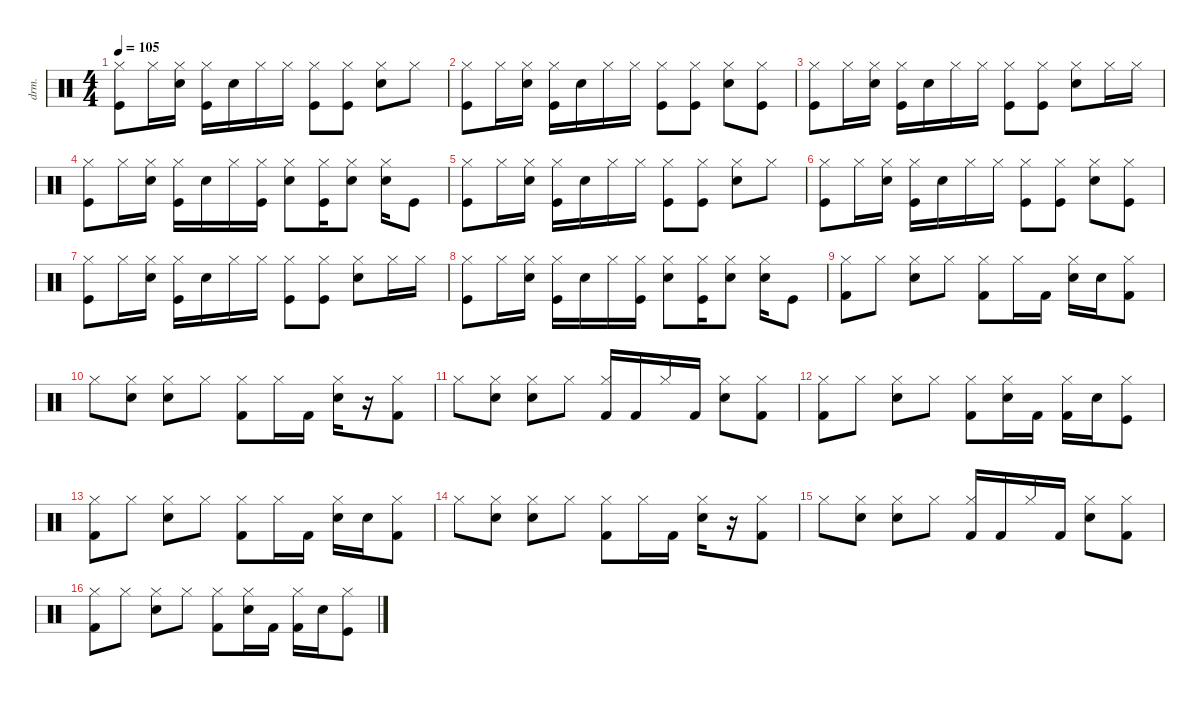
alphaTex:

\defaultSystemsLayout 4
\hideDynamics
\bracketExtendMode nobrackets
\otherSystemsTrackNameOrientation horizontal
\track ("Drumkit" "drm.") {instrument percussion}
\staff {score}
\articulation defaults
\ts (4 4)
\tempo 105
\clef neutral
\ks c
("Hi-Hat (closed)" "Kick (hit)").8{dy mf beam Down} "Hi-Hat (closed)".16{beam Down} ("Hi-Hat (closed)" "Snare (hit) 2").16{beam Down} ("Hi-Hat (closed)" "Kick (hit)").16{beam Down} "Snare (hit) 2".16{beam Down} "Hi-Hat (closed)".16{beam Down} "Hi-Hat (closed)".16{beam Down} ("Hi-Hat (closed)" "Kick (hit)").8{beam Down} ("Hi-Hat (closed)" "Kick (hit)").8{beam Down} ("Hi-Hat (closed)" "Snare (hit) 2").8{beam Down} "Hi-Hat (closed)".8{beam Down} |
("Hi-Hat (closed)" "Kick (hit)").8{beam Down} "Hi-Hat (closed)".16{beam Down} ("Hi-Hat (closed)" "Snare (hit) 2").16{beam Down} ("Hi-Hat (closed)" "Kick (hit)").16{beam Down} "Snare (hit) 2".16{beam Down} "Hi-Hat (closed)".16{beam Down} "Hi-Hat (closed)".16{beam Down} ("Hi-Hat (closed)" "Kick (hit)").8{beam Down} ("Hi-Hat (closed)" "Kick (hit)").8{beam Down} ("Hi-Hat (closed)" "Snare (hit) 2").8{beam Down} ("Hi-Hat (closed)" "Kick (hit)").8{beam Down} |
("Hi-Hat (closed)" "Kick (hit)").8{beam Down} "Hi-Hat (closed)".16{beam Down} ("Hi-Hat (closed)" "Snare (hit) 2").16{beam Down} ("Hi-Hat (closed)" "Kick (hit)").16{beam Down} "Snare (hit) 2".16{beam Down} "Hi-Hat (closed)".16{beam Down} "Hi-Hat (closed)".16{beam Down} ("Hi-Hat (closed)" "Kick (hit)").8{beam Down} ("Hi-Hat (closed)" "Kick (hit)").8{beam Down} ("Hi-Hat (closed)" "Snare (hit) 2").8{beam Down} "Hi-Hat (closed)".16{beam Down} "Hi-Hat (closed)".16{beam Down} |
("Hi-Hat (closed)" "Kick (hit)").8{beam Down} "Hi-Hat (closed)".16{beam Down} ("Hi-Hat (closed)" "Snare (hit) 2").16{beam Down} ("Hi-Hat (closed)" "Kick (hit)").16{beam Down} "Snare (hit) 2".16{beam Down} "Hi-Hat (closed)".16{beam Down} ("Hi-Hat (closed)" "Kick (hit)").16{beam Down} ("Hi-Hat (closed)" "Snare (hit) 2").8{beam Down} ("Hi-Hat (closed)" "Kick (hit)").16{beam Down} ("Hi-Hat (closed)" "Snare (hit) 2").8{beam Down} ("Hi-Hat (closed)" "Snare (hit) 2").16{beam Down} "Kick (hit)".8{beam Down} |
("Hi-Hat (closed)" "Kick (hit)").8{beam Down} "Hi-Hat (closed)".16{beam Down} ("Hi-Hat (closed)" "Snare (hit) 2").16{beam Down} ("Hi-Hat (closed)" "Kick (hit)").16{beam Down} "Snare (hit) 2".16{beam Down} "Hi-Hat (closed)".16{beam Down} "Hi-Hat (closed)".16{beam Down} ("Hi-Hat (closed)" "Kick (hit)").8{beam Down} ("Hi-Hat (closed)" "Kick (hit)").8{beam Down} ("Hi-Hat (closed)" "Snare (hit) 2").8{beam Down} "Hi-Hat (closed)".8{beam Down} |
("Hi-Hat (closed)" "Kick (hit)").8{beam Down} "Hi-Hat (closed)".16{beam Down} ("Hi-Hat (closed)" "Snare (hit) 2").16{beam Down} ("Hi-Hat (closed)" "Kick (hit)").16{beam Down} "Snare (hit) 2".16{beam Down} "Hi-Hat (closed)".16{beam Down} "Hi-Hat (closed)".16{beam Down} ("Hi-Hat (closed)" "Kick (hit)").8{beam Down} ("Hi-Hat (closed)" "Kick (hit)").8{beam Down} ("Hi-Hat (closed)" "Snare (hit) 2").8{beam Down} ("Hi-Hat (closed)" "Kick (hit)").8{beam Down} |
("Hi-Hat (closed)" "Kick (hit)").8{beam Down} "Hi-Hat (closed)".16{beam Down} ("Hi-Hat (closed)" "Snare (hit) 2").16{beam Down} ("Hi-Hat (closed)" "Kick (hit)").16{beam Down} "Snare (hit) 2".16{beam Down} "Hi-Hat (closed)".16{beam Down} "Hi-Hat (closed)".16{beam Down} ("Hi-Hat (closed)" "Kick (hit)").8{beam Down} ("Hi-Hat (closed)" "Kick (hit)").8{beam Down} ("Hi-Hat (closed)" "Snare (hit) 2").8{beam Down} "Hi-Hat (closed)".16{beam Down} "Hi-Hat (closed)".16{beam Down} |
("Hi-Hat (closed)" "Kick (hit)").8{beam Down} "Hi-Hat (closed)".16{beam Down} ("Hi-Hat (closed)" "Snare (hit) 2").16{beam Down} ("Hi-Hat (closed)" "Kick (hit)").16{beam Down} "Snare (hit) 2".16{beam Down} "Hi-Hat (closed)".16{beam Down} ("Hi-Hat (closed)" "Kick (hit)").16{beam Down} ("Hi-Hat (closed)" "Snare (hit) 2").8{beam Down} ("Hi-Hat (closed)" "Kick (hit)").16{beam Down} ("Hi-Hat (closed)" "Snare (hit) 2").8{beam Down} ("Hi-Hat (closed)" "Snare (hit) 2").16{beam Down} "Kick (hit)".8{beam Down} |
("Hi-Hat (closed)" "Kick (hit) 2").8{beam Down} "Hi-Hat (closed)".8{beam Down} ("Hi-Hat (closed)" "Snare (hit) 2").8{beam Down} "Hi-Hat (closed)".8{beam Down} ("Hi-Hat (closed)" "Kick (hit) 2").8{beam Down} "Hi-Hat (closed)".16{beam Down} "Kick (hit) 2".16{beam Down} ("Hi-Hat (closed)" "Snare (hit) 2").16{beam Down} "Snare (hit) 2".16{beam Down} ("Hi-Hat (closed)" "Kick (hit) 2").8{beam Down} |
"Hi-Hat (closed)".8{beam Down} ("Hi-Hat (closed)" "Snare (hit) 2").8{beam Down} ("Hi-Hat (closed)" "Snare (hit) 2").8{beam Down} "Hi-Hat (closed)".8{beam Down} ("Hi-Hat (closed)" "Kick (hit) 2").8{beam Down} "Hi-Hat (closed)".16{beam Down} "Kick (hit) 2".16{beam Down} ("Hi-Hat (closed)" "Snare (hit) 2").16{beam Down} r.16{beam Down} ("Hi-Hat (closed)" "Kick (hit) 2").8{beam Down} |
"Hi-Hat (closed)".8{beam Down} ("Hi-Hat (closed)" "Snare (hit) 2").8{beam Down} ("Hi-Hat (closed)" "Snare (hit) 2").8{beam Down} "Hi-Hat (closed)".8{beam Down} ("Kick (hit) 2" "Hi-Hat (closed)").16{beam Up} "Kick (hit) 2".16{beam Up} "Hi-Hat (closed)".16{beam Up} "Kick (hit) 2".16{beam Up} ("Hi-Hat (closed)" "Snare (hit) 2").8{beam Down} ("Hi-Hat (closed)" "Kick (hit) 2").8{beam Down} |
("Hi-Hat (closed)" "Kick (hit) 2").8{beam Down} "Hi-Hat (closed)".8{beam Down} ("Hi-Hat (closed)" "Snare (hit) 2").8{beam Down} "Hi-Hat (closed)".8{beam Down} ("Hi-Hat (closed)" "Kick (hit) 2").8{beam Down} ("Hi-Hat (closed)" "Snare (hit) 2").16{beam Down} "Kick (hit) 2".16{beam Down} ("Hi-Hat (closed)" "Kick (hit) 2").16{beam Down} "Snare (hit) 2".16{beam Down} ("Hi-Hat (closed)" "Kick (hit)").8{beam Down} |
("Hi-Hat (closed)" "Kick (hit) 2").8{beam Down} "Hi-Hat (closed)".8{beam Down} ("Hi-Hat (closed)" "Snare (hit) 2").8{beam Down} "Hi-Hat (closed)".8{beam Down} ("Hi-Hat (closed)" "Kick (hit) 2").8{beam Down} "Hi-Hat (closed)".16{beam Down} "Kick (hit) 2".16{beam Down} ("Hi-Hat (closed)" "Snare (hit) 2").16{beam Down} "Snare (hit) 2".16{beam Down} ("Hi-Hat (closed)" "Kick (hit) 2").8{beam Down} |
"Hi-Hat (closed)".8{beam Down} ("Hi-Hat (closed)" "Snare (hit) 2").8{beam Down} ("Hi-Hat (closed)" "Snare (hit) 2").8{beam Down} "Hi-Hat (closed)".8{beam Down} ("Hi-Hat (closed)" "Kick (hit) 2").8{beam Down} "Hi-Hat (closed)".16{beam Down} "Kick (hit) 2".16{beam Down} ("Hi-Hat (closed)" "Snare (hit) 2").16{beam Down} r.16{beam Down} ("Hi-Hat (closed)" "Kick (hit) 2").8{beam Down} |
"Hi-Hat (closed)".8{beam Down} ("Hi-Hat (closed)" "Snare (hit) 2").8{beam Down} ("Hi-Hat (closed)" "Snare (hit) 2").8{beam Down} "Hi-Hat (closed)".8{beam Down} ("Kick (hit) 2" "Hi-Hat (closed)").16{beam Up} "Kick (hit) 2".16{beam Up} "Hi-Hat (closed)".16{beam Up} "Kick (hit) 2".16{beam Up} ("Hi-Hat (closed)" "Snare (hit) 2").8{beam Down} ("Hi-Hat (closed)" "Kick (hit) 2").8{beam Down} |
("Hi-Hat (closed)" "Kick (hit) 2").8{beam Down} "Hi-Hat (closed)".8{beam Down} ("Hi-Hat (closed)" "Snare (hit) 2").8{beam Down} "Hi-Hat (closed)".8{beam Down} ("Hi-Hat (closed)" "Kick (hit) 2").8{beam Down} ("Hi-Hat (closed)" "Snare (hit) 2").16{beam Down} "Kick (hit) 2".16{beam Down} ("Hi-Hat (closed)" "Kick (hit) 2").16{beam Down} "Snare (hit) 2".16{beam Down} ("Hi-Hat (closed)" "Kick (hit)").8{beam Down}
